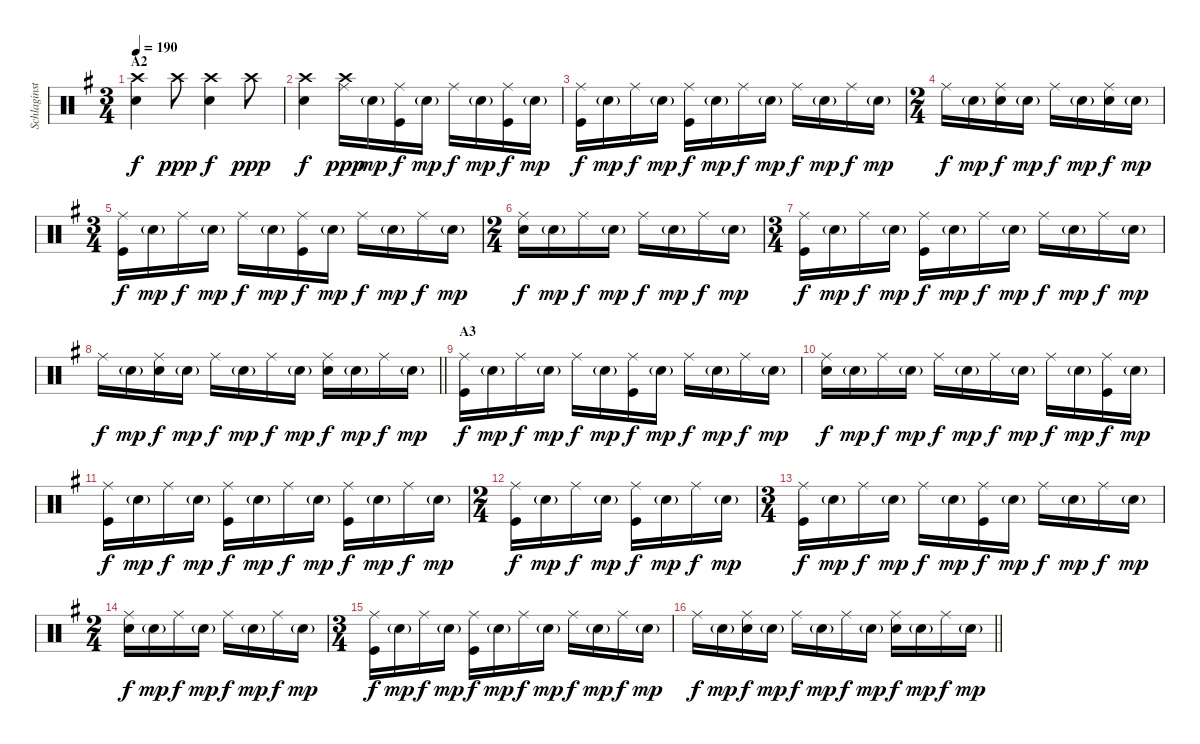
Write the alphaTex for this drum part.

\track ("Schlaginstrumente - Auswahl" "Schlaginst") {instrument percussion}
\staff {score}
\articulation defaults
\ts (3 4)
\section ("" "A2")
\tempo 190
\clef neutral
\ks eminor
("Crash high (hit)" "Electric Snare (hit)").4{dy f} "Crash high (hit)".8{dy ppp} ("Crash high (hit)" "Electric Snare (hit)").4{dy f} "Crash high (hit)".8{dy ppp} |
("Crash high (hit)" "Electric Snare (hit)").4{dy f} ("Crash high (hit)" "Ride (middle)").16{dy ppp} "Electric Snare (hit)"{g}.16{dy mp} ("Ride (middle)" "Kick (hit)").16{dy f} "Electric Snare (hit)"{g}.16{dy mp} "Ride (middle)".16{dy f} "Electric Snare (hit)"{g}.16{dy mp} ("Ride (middle)" "Kick (hit)").16{dy f} "Electric Snare (hit)"{g}.16{dy mp} |
("Ride (middle)" "Kick (hit)").16{dy f} "Electric Snare (hit)"{g}.16{dy mp} "Ride (middle)".16{dy f} "Electric Snare (hit)"{g}.16{dy mp} ("Ride (middle)" "Kick (hit)").16{dy f} "Electric Snare (hit)"{g}.16{dy mp} "Ride (middle)".16{dy f} "Electric Snare (hit)"{g}.16{dy mp} "Ride (middle)".16{dy f} "Electric Snare (hit)"{g}.16{dy mp} "Ride (middle)".16{dy f} "Electric Snare (hit)"{g}.16{dy mp} |
\ts (2 4)
"Ride (middle)".16{dy f} "Electric Snare (hit)"{g}.16{dy mp} ("Ride (middle)" "Electric Snare (hit)").16{dy f} "Electric Snare (hit)"{g}.16{dy mp} "Ride (middle)".16{dy f} "Electric Snare (hit)"{g}.16{dy mp} ("Ride (middle)" "Electric Snare (hit)").16{dy f} "Electric Snare (hit)"{g}.16{dy mp} |
\ts (3 4)
("Ride (middle)" "Kick (hit)").16{dy f} "Electric Snare (hit)"{g}.16{dy mp} "Ride (middle)".16{dy f} "Electric Snare (hit)"{g}.16{dy mp} "Ride (middle)".16{dy f} "Electric Snare (hit)"{g}.16{dy mp} ("Ride (middle)" "Kick (hit)").16{dy f} "Electric Snare (hit)"{g}.16{dy mp} "Ride (middle)".16{dy f} "Electric Snare (hit)"{g}.16{dy mp} "Ride (middle)".16{dy f} "Electric Snare (hit)"{g}.16{dy mp} |
\ts (2 4)
("Ride (middle)" "Electric Snare (hit)").16{dy f} "Electric Snare (hit)"{g}.16{dy mp} "Ride (middle)".16{dy f} "Electric Snare (hit)"{g}.16{dy mp} "Ride (middle)".16{dy f} "Electric Snare (hit)"{g}.16{dy mp} "Ride (middle)".16{dy f} "Electric Snare (hit)"{g}.16{dy mp} |
\ts (3 4)
("Ride (middle)" "Kick (hit)").16{dy f} "Electric Snare (hit)"{g}.16{dy mp} "Ride (middle)".16{dy f} "Electric Snare (hit)"{g}.16{dy mp} ("Ride (middle)" "Kick (hit)").16{dy f} "Electric Snare (hit)"{g}.16{dy mp} "Ride (middle)".16{dy f} "Electric Snare (hit)"{g}.16{dy mp} "Ride (middle)".16{dy f} "Electric Snare (hit)"{g}.16{dy mp} "Ride (middle)".16{dy f} "Electric Snare (hit)"{g}.16{dy mp} |
\barLineRight lightlight "Ride (middle)".16{dy f} "Electric Snare (hit)"{g}.16{dy mp}
("Ride (middle)" "Electric Snare (hit)").16{dy f} "Electric Snare (hit)"{g}.16{dy mp} "Ride (middle)".16{dy f} "Electric Snare (hit)"{g}.16{dy mp} "Ride (middle)".16{dy f} "Electric Snare (hit)"{g}.16{dy mp} ("Ride (middle)" "Electric Snare (hit)").16{dy f} "Electric Snare (hit)"{g}.16{dy mp} "Ride (middle)".16{dy f} "Electric Snare (hit)"{g}.16{dy mp} |
\section ("" "A3")
("Ride (middle)" "Kick (hit)").16{dy f} "Electric Snare (hit)"{g}.16{dy mp} "Ride (middle)".16{dy f} "Electric Snare (hit)"{g}.16{dy mp} "Ride (middle)".16{dy f} "Electric Snare (hit)"{g}.16{dy mp} ("Ride (middle)" "Kick (hit)").16{dy f} "Electric Snare (hit)"{g}.16{dy mp} "Ride (middle)".16{dy f} "Electric Snare (hit)"{g}.16{dy mp} "Ride (middle)".16{dy f} "Electric Snare (hit)"{g}.16{dy mp} |
("Ride (middle)" "Electric Snare (hit)").16{dy f} "Electric Snare (hit)"{g}.16{dy mp} "Ride (middle)".16{dy f} "Electric Snare (hit)"{g}.16{dy mp} "Ride (middle)".16{dy f} "Electric Snare (hit)"{g}.16{dy mp} "Ride (middle)".16{dy f} "Electric Snare (hit)"{g}.16{dy mp} "Ride (middle)".16{dy f} "Electric Snare (hit)"{g}.16{dy mp} ("Ride (middle)" "Kick (hit)").16{dy f} "Electric Snare (hit)"{g}.16{dy mp} |
("Ride (middle)" "Kick (hit)").16{dy f} "Electric Snare (hit)"{g}.16{dy mp} "Ride (middle)".16{dy f} "Electric Snare (hit)"{g}.16{dy mp} ("Ride (middle)" "Kick (hit)").16{dy f} "Electric Snare (hit)"{g}.16{dy mp} "Ride (middle)".16{dy f} "Electric Snare (hit)"{g}.16{dy mp} ("Ride (middle)" "Kick (hit)").16{dy f} "Electric Snare (hit)"{g}.16{dy mp} "Ride (middle)".16{dy f} "Electric Snare (hit)"{g}.16{dy mp} |
\ts (2 4)
("Ride (middle)" "Kick (hit)").16{dy f} "Electric Snare (hit)"{g}.16{dy mp} "Ride (middle)".16{dy f} "Electric Snare (hit)"{g}.16{dy mp} ("Ride (middle)" "Kick (hit)").16{dy f} "Electric Snare (hit)"{g}.16{dy mp} "Ride (middle)".16{dy f} "Electric Snare (hit)"{g}.16{dy mp} |
\ts (3 4)
("Ride (middle)" "Kick (hit)").16{dy f} "Electric Snare (hit)"{g}.16{dy mp} "Ride (middle)".16{dy f} "Electric Snare (hit)"{g}.16{dy mp} "Ride (middle)".16{dy f} "Electric Snare (hit)"{g}.16{dy mp} ("Ride (middle)" "Kick (hit)").16{dy f} "Electric Snare (hit)"{g}.16{dy mp} "Ride (middle)".16{dy f} "Electric Snare (hit)"{g}.16{dy mp} "Ride (middle)".16{dy f} "Electric Snare (hit)"{g}.16{dy mp} |
\ts (2 4)
("Ride (middle)" "Electric Snare (hit)").16{dy f} "Electric Snare (hit)"{g}.16{dy mp} "Ride (middle)".16{dy f} "Electric Snare (hit)"{g}.16{dy mp} "Ride (middle)".16{dy f} "Electric Snare (hit)"{g}.16{dy mp} "Ride (middle)".16{dy f} "Electric Snare (hit)"{g}.16{dy mp} |
\ts (3 4)
("Ride (middle)" "Kick (hit)").16{dy f} "Electric Snare (hit)"{g}.16{dy mp} "Ride (middle)".16{dy f} "Electric Snare (hit)"{g}.16{dy mp} ("Ride (middle)" "Kick (hit)").16{dy f} "Electric Snare (hit)"{g}.16{dy mp} "Ride (middle)".16{dy f} "Electric Snare (hit)"{g}.16{dy mp} "Ride (middle)".16{dy f} "Electric Snare (hit)"{g}.16{dy mp} "Ride (middle)".16{dy f} "Electric Snare (hit)"{g}.16{dy mp} |
\barLineRight lightlight "Ride (middle)".16{dy f} "Electric Snare (hit)"{g}.16{dy mp}
("Ride (middle)" "Electric Snare (hit)").16{dy f} "Electric Snare (hit)"{g}.16{dy mp} "Ride (middle)".16{dy f} "Electric Snare (hit)"{g}.16{dy mp} "Ride (middle)".16{dy f} "Electric Snare (hit)"{g}.16{dy mp} ("Ride (middle)" "Electric Snare (hit)").16{dy f} "Electric Snare (hit)"{g}.16{dy mp} "Ride (middle)".16{dy f} "Electric Snare (hit)"{g}.16{dy mp}
